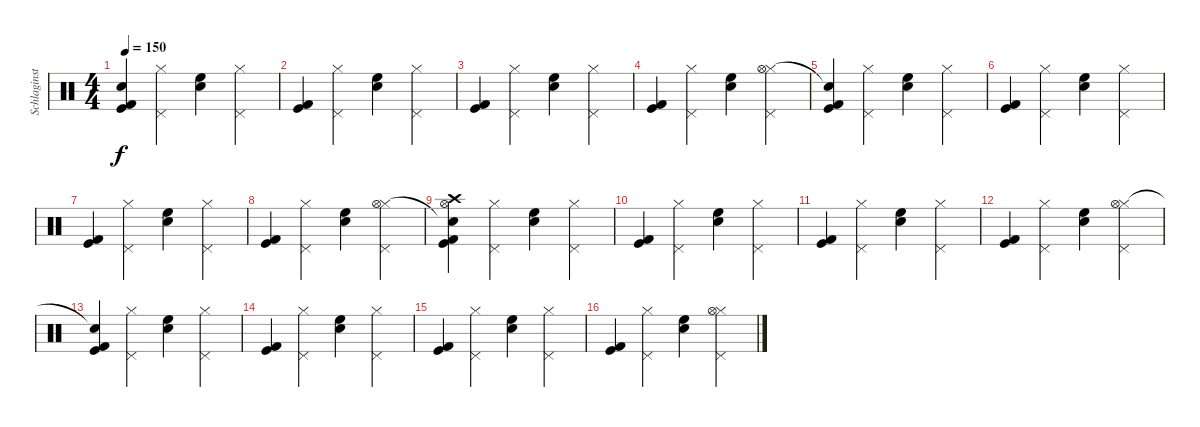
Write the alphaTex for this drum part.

\track ("Schlaginstrumente - Auswahl" "Schlaginst") {instrument percussion}
\staff {score}
\articulation defaults
\ts (4 4)
\tempo 150
\clef neutral
\ks c
("Kick (hit) 2" "Kick (hit)" "Snare (hit)"{t}).4{dy f} ("Pedal Hi-Hat (hit)" "Hi-Hat (closed)").4 ("High Floor Tom (hit)" "Snare (hit) 2").4 ("Pedal Hi-Hat (hit)" "Hi-Hat (closed)").4 |
("Kick (hit) 2" "Kick (hit)").4 ("Pedal Hi-Hat (hit)" "Hi-Hat (closed)").4 ("High Floor Tom (hit)" "Snare (hit) 2").4 ("Pedal Hi-Hat (hit)" "Hi-Hat (closed)").4 |
("Kick (hit) 2" "Kick (hit)").4 ("Pedal Hi-Hat (hit)" "Hi-Hat (closed)").4 ("High Floor Tom (hit)" "Snare (hit) 2").4 ("Pedal Hi-Hat (hit)" "Hi-Hat (closed)").4 |
("Kick (hit) 2" "Kick (hit)").4 ("Pedal Hi-Hat (hit)" "Hi-Hat (closed)").4 ("High Floor Tom (hit)" "Snare (hit) 2").4 ("Pedal Hi-Hat (hit)" "Hi-Hat (closed)" "Hi-Hat (open)").4 |
("Kick (hit) 2" "Kick (hit)" "Snare (hit)"{t}).4 ("Pedal Hi-Hat (hit)" "Hi-Hat (closed)").4 ("High Floor Tom (hit)" "Snare (hit) 2").4 ("Pedal Hi-Hat (hit)" "Hi-Hat (closed)").4 |
("Kick (hit) 2" "Kick (hit)").4 ("Pedal Hi-Hat (hit)" "Hi-Hat (closed)").4 ("High Floor Tom (hit)" "Snare (hit) 2").4 ("Pedal Hi-Hat (hit)" "Hi-Hat (closed)").4 |
("Kick (hit) 2" "Kick (hit)").4 ("Pedal Hi-Hat (hit)" "Hi-Hat (closed)").4 ("High Floor Tom (hit)" "Snare (hit) 2").4 ("Pedal Hi-Hat (hit)" "Hi-Hat (closed)").4 |
("Kick (hit) 2" "Kick (hit)").4 ("Pedal Hi-Hat (hit)" "Hi-Hat (closed)").4 ("High Floor Tom (hit)" "Snare (hit) 2").4 ("Pedal Hi-Hat (hit)" "Hi-Hat (closed)" "Hi-Hat (open)").4 |
("Kick (hit) 2" "Kick (hit)" "Snare (hit)"{t} "Hi-Hat (open)" "Crash high (hit)").4 ("Pedal Hi-Hat (hit)" "Hi-Hat (closed)").4 ("High Floor Tom (hit)" "Snare (hit) 2").4 ("Pedal Hi-Hat (hit)" "Hi-Hat (closed)").4 |
("Kick (hit) 2" "Kick (hit)").4 ("Pedal Hi-Hat (hit)" "Hi-Hat (closed)").4 ("High Floor Tom (hit)" "Snare (hit) 2").4 ("Pedal Hi-Hat (hit)" "Hi-Hat (closed)").4 |
("Kick (hit) 2" "Kick (hit)").4 ("Pedal Hi-Hat (hit)" "Hi-Hat (closed)").4 ("High Floor Tom (hit)" "Snare (hit) 2").4 ("Pedal Hi-Hat (hit)" "Hi-Hat (closed)").4 |
("Kick (hit) 2" "Kick (hit)").4 ("Pedal Hi-Hat (hit)" "Hi-Hat (closed)").4 ("High Floor Tom (hit)" "Snare (hit) 2").4 ("Pedal Hi-Hat (hit)" "Hi-Hat (closed)" "Hi-Hat (open)").4 |
("Kick (hit) 2" "Kick (hit)" "Snare (hit)"{t}).4 ("Pedal Hi-Hat (hit)" "Hi-Hat (closed)").4 ("High Floor Tom (hit)" "Snare (hit) 2").4 ("Pedal Hi-Hat (hit)" "Hi-Hat (closed)").4 |
("Kick (hit) 2" "Kick (hit)").4 ("Pedal Hi-Hat (hit)" "Hi-Hat (closed)").4 ("High Floor Tom (hit)" "Snare (hit) 2").4 ("Pedal Hi-Hat (hit)" "Hi-Hat (closed)").4 |
("Kick (hit) 2" "Kick (hit)").4 ("Pedal Hi-Hat (hit)" "Hi-Hat (closed)").4 ("High Floor Tom (hit)" "Snare (hit) 2").4 ("Pedal Hi-Hat (hit)" "Hi-Hat (closed)").4 |
("Kick (hit) 2" "Kick (hit)").4 ("Pedal Hi-Hat (hit)" "Hi-Hat (closed)").4 ("High Floor Tom (hit)" "Snare (hit) 2").4 ("Pedal Hi-Hat (hit)" "Hi-Hat (closed)" "Hi-Hat (open)").4
